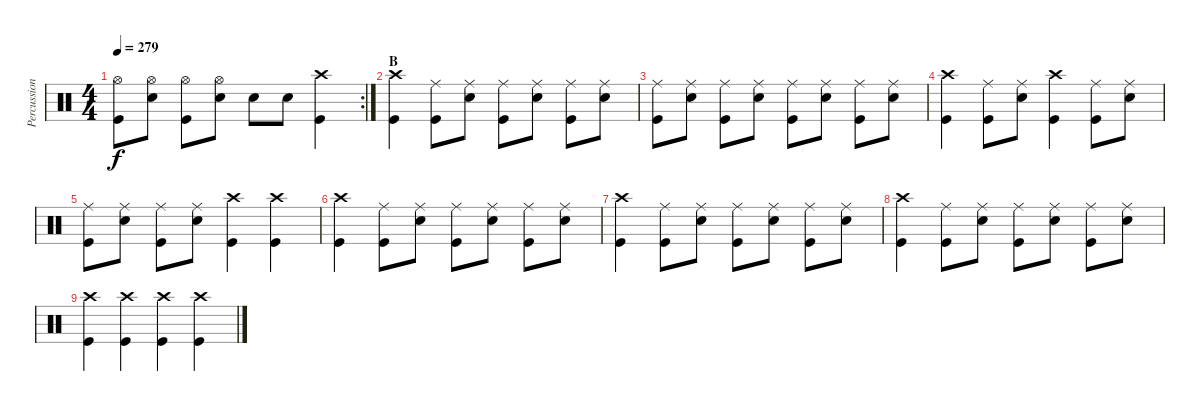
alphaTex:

\track ("Percussion" "Percussion") {instrument percussion}
\staff {score}
\articulation defaults
\rc 2
\ts (4 4)
\tempo 279
\clef neutral
\ks c
("Hi-Hat (open)" "Kick (hit)").8{dy f} ("Hi-Hat (open)" "Snare (hit) 2").8 ("Hi-Hat (open)" "Kick (hit)").8 ("Hi-Hat (open)" "Snare (hit) 2").8 "Snare (hit) 2".8 "Snare (hit) 2".8 ("Crash high (hit)" "Kick (hit)").4 |
\section ("" "B")
("Crash high (hit)" "Kick (hit)").4 ("Ride (middle)" "Kick (hit)").8 ("Ride (middle)" "Snare (hit) 2").8 ("Ride (middle)" "Kick (hit)").8 ("Ride (middle)" "Snare (hit) 2").8 ("Ride (middle)" "Kick (hit)").8 ("Ride (middle)" "Snare (hit) 2").8 |
("Ride (middle)" "Kick (hit)").8 ("Ride (middle)" "Snare (hit) 2").8 ("Ride (middle)" "Kick (hit)").8 ("Ride (middle)" "Snare (hit) 2").8 ("Ride (middle)" "Kick (hit)").8 ("Ride (middle)" "Snare (hit) 2").8 ("Ride (middle)" "Kick (hit)").8 ("Ride (middle)" "Snare (hit) 2").8 |
("Crash high (hit)" "Kick (hit)").4 ("Ride (middle)" "Kick (hit)").8 ("Ride (middle)" "Snare (hit) 2").8 ("Crash high (hit)" "Kick (hit)").4 ("Ride (middle)" "Kick (hit)").8 ("Ride (middle)" "Snare (hit) 2").8 |
("Ride (middle)" "Kick (hit)").8 ("Ride (middle)" "Snare (hit) 2").8 ("Ride (middle)" "Kick (hit)").8 ("Ride (middle)" "Snare (hit) 2").8 ("Crash high (hit)" "Kick (hit)").4 ("Crash high (hit)" "Kick (hit)").4 |
("Crash high (hit)" "Kick (hit)").4 ("Ride (middle)" "Kick (hit)").8 ("Ride (middle)" "Snare (hit) 2").8 ("Ride (middle)" "Kick (hit)").8 ("Ride (middle)" "Snare (hit) 2").8 ("Ride (middle)" "Kick (hit)").8 ("Ride (middle)" "Snare (hit) 2").8 |
("Crash high (hit)" "Kick (hit)").4 ("Ride (middle)" "Kick (hit)").8 ("Ride (middle)" "Snare (hit) 2").8 ("Ride (middle)" "Kick (hit)").8 ("Ride (middle)" "Snare (hit) 2").8 ("Ride (middle)" "Kick (hit)").8 ("Ride (middle)" "Snare (hit) 2").8 |
("Crash high (hit)" "Kick (hit)").4 ("Ride (middle)" "Kick (hit)").8 ("Ride (middle)" "Snare (hit) 2").8 ("Ride (middle)" "Kick (hit)").8 ("Ride (middle)" "Snare (hit) 2").8 ("Ride (middle)" "Kick (hit)").8 ("Ride (middle)" "Snare (hit) 2").8 |
("Crash high (hit)" "Kick (hit)").4 ("Crash high (hit)" "Kick (hit)").4 ("Crash high (hit)" "Kick (hit)").4 ("Crash high (hit)" "Kick (hit)").4
